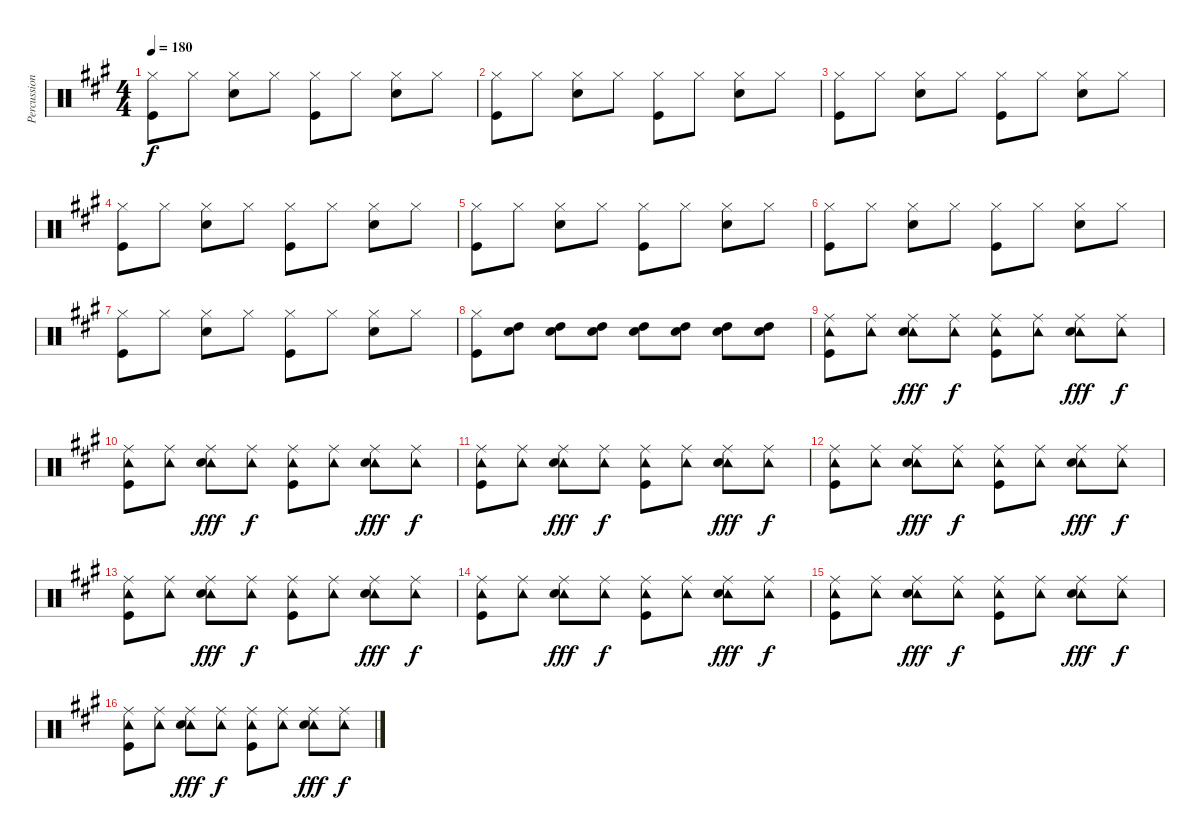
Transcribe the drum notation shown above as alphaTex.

\track ("Percussion" "Percussion") {instrument percussion}
\staff {score}
\articulation defaults
\ts (4 4)
\tempo 180
\clef neutral
\ks a
("Hi-Hat (closed)" "Kick (hit)").8{dy f} "Hi-Hat (closed)".8 ("Hi-Hat (closed)" "Snare (hit) 2").8 "Hi-Hat (closed)".8 ("Hi-Hat (closed)" "Kick (hit)").8 "Hi-Hat (closed)".8 ("Hi-Hat (closed)" "Snare (hit) 2").8 "Hi-Hat (closed)".8 |
("Hi-Hat (closed)" "Kick (hit)").8 "Hi-Hat (closed)".8 ("Hi-Hat (closed)" "Snare (hit) 2").8 "Hi-Hat (closed)".8 ("Hi-Hat (closed)" "Kick (hit)").8 "Hi-Hat (closed)".8 ("Hi-Hat (closed)" "Snare (hit) 2").8 "Hi-Hat (closed)".8 |
("Hi-Hat (closed)" "Kick (hit)").8 "Hi-Hat (closed)".8 ("Hi-Hat (closed)" "Snare (hit) 2").8 "Hi-Hat (closed)".8 ("Hi-Hat (closed)" "Kick (hit)").8 "Hi-Hat (closed)".8 ("Hi-Hat (closed)" "Snare (hit) 2").8 "Hi-Hat (closed)".8 |
("Hi-Hat (closed)" "Kick (hit)").8 "Hi-Hat (closed)".8 ("Hi-Hat (closed)" "Snare (hit) 2").8 "Hi-Hat (closed)".8 ("Hi-Hat (closed)" "Kick (hit)").8 "Hi-Hat (closed)".8 ("Hi-Hat (closed)" "Snare (hit) 2").8 "Hi-Hat (closed)".8 |
("Hi-Hat (closed)" "Kick (hit)").8 "Hi-Hat (closed)".8 ("Hi-Hat (closed)" "Snare (hit) 2").8 "Hi-Hat (closed)".8 ("Hi-Hat (closed)" "Kick (hit)").8 "Hi-Hat (closed)".8 ("Hi-Hat (closed)" "Snare (hit) 2").8 "Hi-Hat (closed)".8 |
("Hi-Hat (closed)" "Kick (hit)").8 "Hi-Hat (closed)".8 ("Hi-Hat (closed)" "Snare (hit) 2").8 "Hi-Hat (closed)".8 ("Hi-Hat (closed)" "Kick (hit)").8 "Hi-Hat (closed)".8 ("Hi-Hat (closed)" "Snare (hit) 2").8 "Hi-Hat (closed)".8 |
("Hi-Hat (closed)" "Kick (hit)").8 "Hi-Hat (closed)".8 ("Hi-Hat (closed)" "Snare (hit) 2").8 "Hi-Hat (closed)".8 ("Hi-Hat (closed)" "Kick (hit)").8 "Hi-Hat (closed)".8 ("Hi-Hat (closed)" "Snare (hit) 2").8 "Hi-Hat (closed)".8 |
("Hi-Hat (closed)" "Kick (hit)").8 ("High Tom (hit)" "Snare (hit) 2").8 ("High Tom (hit)" "Snare (hit) 2").8 ("High Tom (hit)" "Snare (hit) 2").8 ("High Tom (hit)" "Snare (hit) 2").8 ("High Tom (hit)" "Snare (hit) 2").8 ("High Tom (hit)" "Snare (hit) 2").8 ("High Tom (hit)" "Snare (hit) 2").8 |
("Ride (middle)" "Tambourine (hit)" "Kick (hit)").8 ("Ride (middle)" "Tambourine (hit)").8 ("Ride (middle)" "Tambourine (hit)" "Snare (hit) 2").8{dy fff} ("Ride (middle)" "Tambourine (hit)").8{dy f} ("Ride (middle)" "Tambourine (hit)" "Kick (hit)").8 ("Ride (middle)" "Tambourine (hit)").8 ("Ride (middle)" "Tambourine (hit)" "Snare (hit) 2").8{dy fff} ("Ride (middle)" "Tambourine (hit)").8{dy f} |
("Ride (middle)" "Tambourine (hit)" "Kick (hit)").8 ("Ride (middle)" "Tambourine (hit)").8 ("Ride (middle)" "Tambourine (hit)" "Snare (hit) 2").8{dy fff} ("Ride (middle)" "Tambourine (hit)").8{dy f} ("Ride (middle)" "Tambourine (hit)" "Kick (hit)").8 ("Ride (middle)" "Tambourine (hit)").8 ("Ride (middle)" "Tambourine (hit)" "Snare (hit) 2").8{dy fff} ("Ride (middle)" "Tambourine (hit)").8{dy f} |
("Ride (middle)" "Tambourine (hit)" "Kick (hit)").8 ("Ride (middle)" "Tambourine (hit)").8 ("Ride (middle)" "Tambourine (hit)" "Snare (hit) 2").8{dy fff} ("Ride (middle)" "Tambourine (hit)").8{dy f} ("Ride (middle)" "Tambourine (hit)" "Kick (hit)").8 ("Ride (middle)" "Tambourine (hit)").8 ("Ride (middle)" "Tambourine (hit)" "Snare (hit) 2").8{dy fff} ("Ride (middle)" "Tambourine (hit)").8{dy f} |
("Ride (middle)" "Tambourine (hit)" "Kick (hit)").8 ("Ride (middle)" "Tambourine (hit)").8 ("Ride (middle)" "Tambourine (hit)" "Snare (hit) 2").8{dy fff} ("Ride (middle)" "Tambourine (hit)").8{dy f} ("Ride (middle)" "Tambourine (hit)" "Kick (hit)").8 ("Ride (middle)" "Tambourine (hit)").8 ("Ride (middle)" "Tambourine (hit)" "Snare (hit) 2").8{dy fff} ("Ride (middle)" "Tambourine (hit)").8{dy f} |
("Ride (middle)" "Tambourine (hit)" "Kick (hit)").8 ("Ride (middle)" "Tambourine (hit)").8 ("Ride (middle)" "Tambourine (hit)" "Snare (hit) 2").8{dy fff} ("Ride (middle)" "Tambourine (hit)").8{dy f} ("Ride (middle)" "Tambourine (hit)" "Kick (hit)").8 ("Ride (middle)" "Tambourine (hit)").8 ("Ride (middle)" "Tambourine (hit)" "Snare (hit) 2").8{dy fff} ("Ride (middle)" "Tambourine (hit)").8{dy f} |
("Ride (middle)" "Tambourine (hit)" "Kick (hit)").8 ("Ride (middle)" "Tambourine (hit)").8 ("Ride (middle)" "Tambourine (hit)" "Snare (hit) 2").8{dy fff} ("Ride (middle)" "Tambourine (hit)").8{dy f} ("Ride (middle)" "Tambourine (hit)" "Kick (hit)").8 ("Ride (middle)" "Tambourine (hit)").8 ("Ride (middle)" "Tambourine (hit)" "Snare (hit) 2").8{dy fff} ("Ride (middle)" "Tambourine (hit)").8{dy f} |
("Ride (middle)" "Tambourine (hit)" "Kick (hit)").8 ("Ride (middle)" "Tambourine (hit)").8 ("Ride (middle)" "Tambourine (hit)" "Snare (hit) 2").8{dy fff} ("Ride (middle)" "Tambourine (hit)").8{dy f} ("Ride (middle)" "Tambourine (hit)" "Kick (hit)").8 ("Ride (middle)" "Tambourine (hit)").8 ("Ride (middle)" "Tambourine (hit)" "Snare (hit) 2").8{dy fff} ("Ride (middle)" "Tambourine (hit)").8{dy f} |
("Ride (middle)" "Tambourine (hit)" "Kick (hit)").8 ("Ride (middle)" "Tambourine (hit)").8 ("Ride (middle)" "Tambourine (hit)" "Snare (hit) 2").8{dy fff} ("Ride (middle)" "Tambourine (hit)").8{dy f} ("Ride (middle)" "Tambourine (hit)" "Kick (hit)").8 ("Ride (middle)" "Tambourine (hit)").8 ("Ride (middle)" "Tambourine (hit)" "Snare (hit) 2").8{dy fff} ("Ride (middle)" "Tambourine (hit)").8{dy f}
